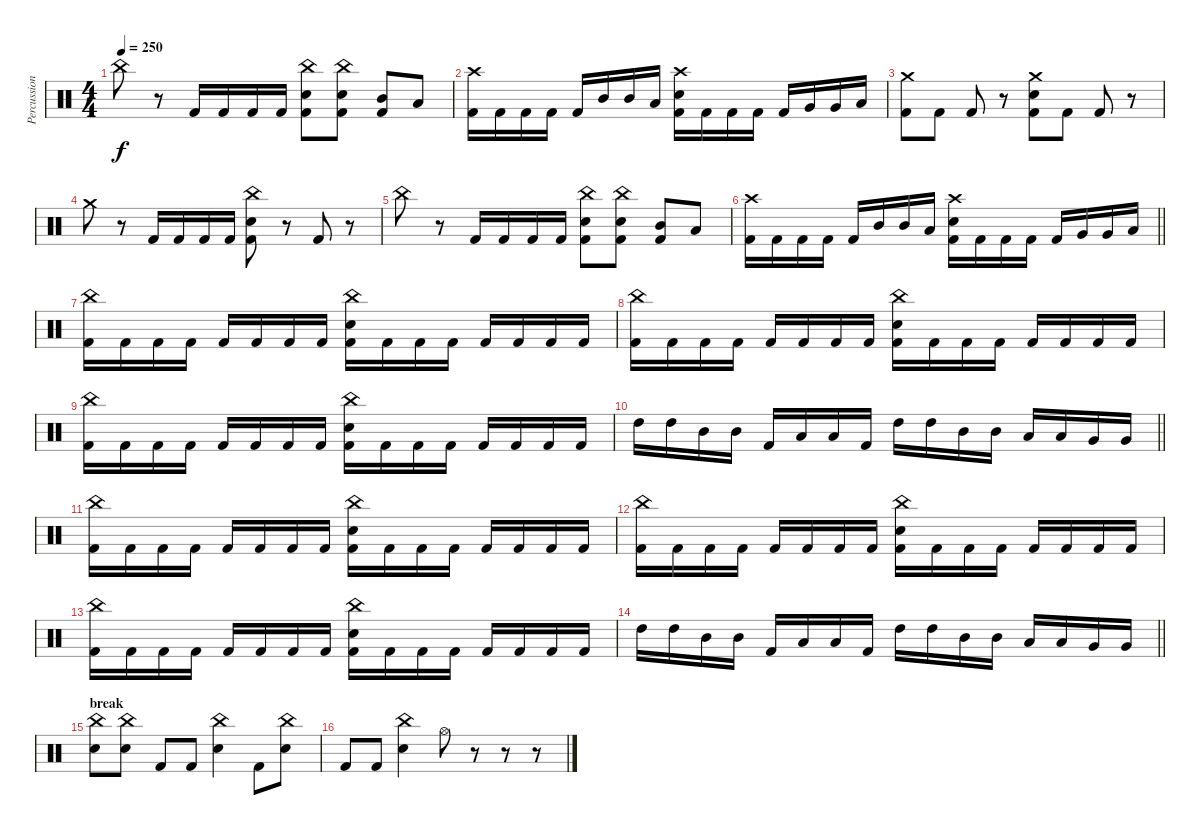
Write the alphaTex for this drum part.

\track ("Percussions" "Percussion") {instrument percussion}
\staff {score}
\articulation defaults
\ts (4 4)
\tempo 250
\clef neutral
\ks c "China (hit)".8{dy f}
r.8 "Kick (hit) 2".16 "Kick (hit) 2".16 "Kick (hit) 2".16 "Kick (hit) 2".16 ("China (hit)" "Electric Snare (hit)" "Kick (hit) 2").8 ("China (hit)" "Electric Snare (hit)" "Kick (hit) 2").8 ("Mid Tom (hit)" "Kick (hit) 2").8 "Low Tom (hit)".8 |
("Crash high (hit)" "Kick (hit) 2").16 "Kick (hit) 2".16 "Kick (hit) 2".16 "Kick (hit) 2".16 "Kick (hit) 2".16 "Mid Tom (hit)".16 "Mid Tom (hit)".16 "Low Tom (hit)".16 ("Crash high (hit)" "Electric Snare (hit)" "Kick (hit) 2").16 "Kick (hit) 2".16 "Kick (hit) 2".16 "Kick (hit) 2".16 "Kick (hit) 2".16 "Very Low Tom (hit)".16 "Very Low Tom (hit)".16 "Low Floor Tom (hit)".16 |
("Crash medium (hit)" "Kick (hit) 2").8 "Kick (hit) 2".8 "Kick (hit) 2".8 r.8 ("Crash medium (hit)" "Electric Snare (hit)" "Kick (hit) 2").8 "Kick (hit) 2".8 "Kick (hit) 2".8 r.8 |
"Crash medium (hit)".8 r.8 "Kick (hit) 2".16 "Kick (hit) 2".16 "Kick (hit) 2".16 "Kick (hit) 2".16 ("China (hit)" "Electric Snare (hit)" "Kick (hit) 2").8 r.8 "Kick (hit) 2".8 r.8 |
"China (hit)".8 r.8 "Kick (hit) 2".16 "Kick (hit) 2".16 "Kick (hit) 2".16 "Kick (hit) 2".16 ("China (hit)" "Electric Snare (hit)" "Kick (hit) 2").8 ("China (hit)" "Electric Snare (hit)" "Kick (hit) 2").8 ("Mid Tom (hit)" "Kick (hit) 2").8 "Low Tom (hit)".8 |
\barLineRight lightlight
("Crash high (hit)" "Kick (hit) 2").16 "Kick (hit) 2".16 "Kick (hit) 2".16 "Kick (hit) 2".16 "Kick (hit) 2".16 "Mid Tom (hit)".16 "Mid Tom (hit)".16 "Low Tom (hit)".16 ("Crash high (hit)" "Electric Snare (hit)" "Kick (hit) 2").16 "Kick (hit) 2".16 "Kick (hit) 2".16 "Kick (hit) 2".16 "Kick (hit) 2".16 "Very Low Tom (hit)".16 "Very Low Tom (hit)".16 "Low Floor Tom (hit)".16 |
("China (hit)" "Kick (hit) 2").16 "Kick (hit) 2".16 "Kick (hit) 2".16 "Kick (hit) 2".16 "Kick (hit) 2".16 "Kick (hit) 2".16 "Kick (hit) 2".16 "Kick (hit) 2".16 ("China (hit)" "Electric Snare (hit)" "Kick (hit) 2").16 "Kick (hit) 2".16 "Kick (hit) 2".16 "Kick (hit) 2".16 "Kick (hit) 2".16 "Kick (hit) 2".16 "Kick (hit) 2".16 "Kick (hit) 2".16 |
("China (hit)" "Kick (hit) 2").16 "Kick (hit) 2".16 "Kick (hit) 2".16 "Kick (hit) 2".16 "Kick (hit) 2".16 "Kick (hit) 2".16 "Kick (hit) 2".16 "Kick (hit) 2".16 ("China (hit)" "Electric Snare (hit)" "Kick (hit) 2").16 "Kick (hit) 2".16 "Kick (hit) 2".16 "Kick (hit) 2".16 "Kick (hit) 2".16 "Kick (hit) 2".16 "Kick (hit) 2".16 "Kick (hit) 2".16 |
("China (hit)" "Kick (hit) 2").16 "Kick (hit) 2".16 "Kick (hit) 2".16 "Kick (hit) 2".16 "Kick (hit) 2".16 "Kick (hit) 2".16 "Kick (hit) 2".16 "Kick (hit) 2".16 ("China (hit)" "Electric Snare (hit)" "Kick (hit) 2").16 "Kick (hit) 2".16 "Kick (hit) 2".16 "Kick (hit) 2".16 "Kick (hit) 2".16 "Kick (hit) 2".16 "Kick (hit) 2".16 "Kick (hit) 2".16 |
\barLineRight lightlight "High Tom (hit)".16 "High Tom (hit)".16 "Mid Tom (hit)".16 "Mid Tom (hit)".16 "Kick (hit) 2".16 "Low Tom (hit)".16 "Low Tom (hit)".16 "Kick (hit) 2".16 "High Tom (hit)".16 "High Tom (hit)".16 "Mid Tom (hit)".16 "Mid Tom (hit)".16 "Low Tom (hit)".16 "Low Tom (hit)".16 "Very Low Tom (hit)".16 "Very Low Tom (hit)".16
|
("China (hit)" "Kick (hit) 2").16 "Kick (hit) 2".16 "Kick (hit) 2".16 "Kick (hit) 2".16 "Kick (hit) 2".16 "Kick (hit) 2".16 "Kick (hit) 2".16 "Kick (hit) 2".16 ("China (hit)" "Electric Snare (hit)" "Kick (hit) 2").16 "Kick (hit) 2".16 "Kick (hit) 2".16 "Kick (hit) 2".16 "Kick (hit) 2".16 "Kick (hit) 2".16 "Kick (hit) 2".16 "Kick (hit) 2".16 |
("China (hit)" "Kick (hit) 2").16 "Kick (hit) 2".16 "Kick (hit) 2".16 "Kick (hit) 2".16 "Kick (hit) 2".16 "Kick (hit) 2".16 "Kick (hit) 2".16 "Kick (hit) 2".16 ("China (hit)" "Electric Snare (hit)" "Kick (hit) 2").16 "Kick (hit) 2".16 "Kick (hit) 2".16 "Kick (hit) 2".16 "Kick (hit) 2".16 "Kick (hit) 2".16 "Kick (hit) 2".16 "Kick (hit) 2".16 |
("China (hit)" "Kick (hit) 2").16 "Kick (hit) 2".16 "Kick (hit) 2".16 "Kick (hit) 2".16 "Kick (hit) 2".16 "Kick (hit) 2".16 "Kick (hit) 2".16 "Kick (hit) 2".16 ("China (hit)" "Electric Snare (hit)" "Kick (hit) 2").16 "Kick (hit) 2".16 "Kick (hit) 2".16 "Kick (hit) 2".16 "Kick (hit) 2".16 "Kick (hit) 2".16 "Kick (hit) 2".16 "Kick (hit) 2".16 |
\barLineRight lightlight "High Tom (hit)".16 "High Tom (hit)".16 "Mid Tom (hit)".16 "Mid Tom (hit)".16 "Kick (hit) 2".16 "Low Tom (hit)".16 "Low Tom (hit)".16 "Kick (hit) 2".16 "High Tom (hit)".16 "High Tom (hit)".16 "Mid Tom (hit)".16 "Mid Tom (hit)".16 "Low Tom (hit)".16 "Low Tom (hit)".16 "Very Low Tom (hit)".16 "Very Low Tom (hit)".16
|
\section ("" "break")
("China (hit)" "Electric Snare (hit)").8 ("China (hit)" "Electric Snare (hit)").8 "Kick (hit) 2".8 "Kick (hit) 2".8 ("China (hit)" "Electric Snare (hit)").4 "Kick (hit) 2".8 ("China (hit)" "Electric Snare (hit)").8 |
"Kick (hit) 2".8 "Kick (hit) 2".8 ("China (hit)" "Electric Snare (hit)").4 "Hi-Hat (open)".8 r.8 r.8 r.8
